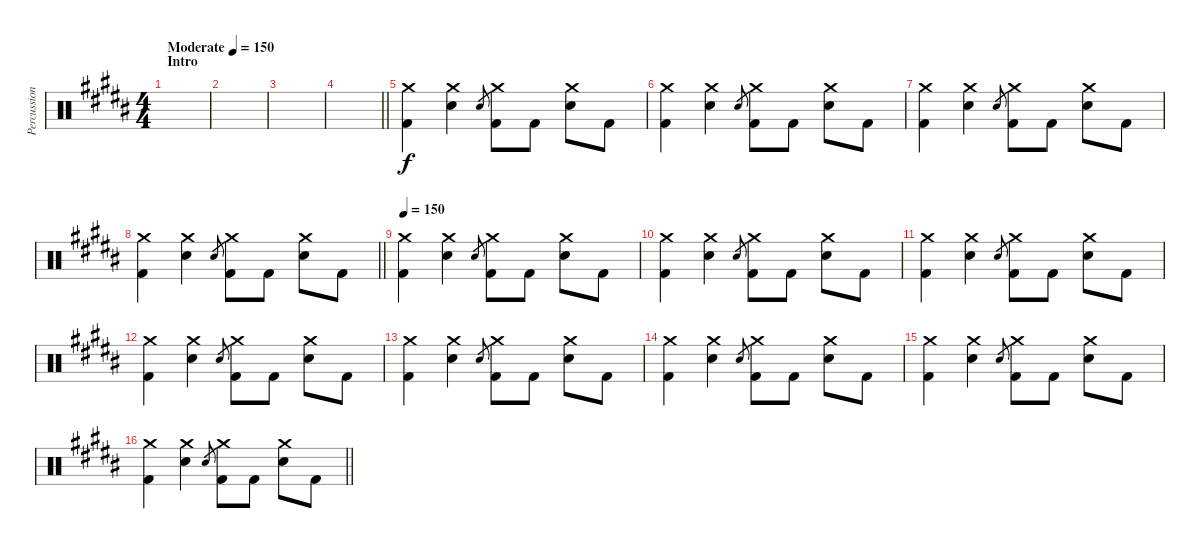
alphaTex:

\track ("Percussion" "Percussion") {instrument percussion}
\staff {score}
\articulation defaults
\ts (4 4)
\section ("" "Intro")
\tempo (150 "Moderate")
\clef neutral
\ks b
|
|
|
\barLineRight lightlight
|
("Crash medium (hit)" "Kick (hit) 2").4 ("Crash medium (hit)" "Electric Snare (hit)").4 "Electric Snare (hit)".8{gr} ("Crash medium (hit)" "Kick (hit) 2").8 "Kick (hit) 2".8 ("Crash medium (hit)" "Electric Snare (hit)").8 "Kick (hit) 2".8 |
("Crash medium (hit)" "Kick (hit) 2").4 ("Crash medium (hit)" "Electric Snare (hit)").4 "Electric Snare (hit)".8{gr} ("Crash medium (hit)" "Kick (hit) 2").8 "Kick (hit) 2".8 ("Crash medium (hit)" "Electric Snare (hit)").8 "Kick (hit) 2".8 |
("Crash medium (hit)" "Kick (hit) 2").4 ("Crash medium (hit)" "Electric Snare (hit)").4 "Electric Snare (hit)".8{gr} ("Crash medium (hit)" "Kick (hit) 2").8 "Kick (hit) 2".8 ("Crash medium (hit)" "Electric Snare (hit)").8 "Kick (hit) 2".8 |
\barLineRight lightlight
("Crash medium (hit)" "Kick (hit) 2").4 ("Crash medium (hit)" "Electric Snare (hit)").4 "Electric Snare (hit)".8{gr} ("Crash medium (hit)" "Kick (hit) 2").8 "Kick (hit) 2".8 ("Crash medium (hit)" "Electric Snare (hit)").8 "Kick (hit) 2".8 |
\tempo 150
("Crash medium (hit)" "Kick (hit) 2").4 ("Crash medium (hit)" "Electric Snare (hit)").4 "Electric Snare (hit)".8{gr} ("Crash medium (hit)" "Kick (hit) 2").8 "Kick (hit) 2".8 ("Crash medium (hit)" "Electric Snare (hit)").8 "Kick (hit) 2".8 |
("Crash medium (hit)" "Kick (hit) 2").4 ("Crash medium (hit)" "Electric Snare (hit)").4 "Electric Snare (hit)".8{gr} ("Crash medium (hit)" "Kick (hit) 2").8 "Kick (hit) 2".8 ("Crash medium (hit)" "Electric Snare (hit)").8 "Kick (hit) 2".8 |
("Crash medium (hit)" "Kick (hit) 2").4 ("Crash medium (hit)" "Electric Snare (hit)").4 "Electric Snare (hit)".8{gr} ("Crash medium (hit)" "Kick (hit) 2").8 "Kick (hit) 2".8 ("Crash medium (hit)" "Electric Snare (hit)").8 "Kick (hit) 2".8 |
("Crash medium (hit)" "Kick (hit) 2").4 ("Crash medium (hit)" "Electric Snare (hit)").4 "Electric Snare (hit)".8{gr} ("Crash medium (hit)" "Kick (hit) 2").8 "Kick (hit) 2".8 ("Crash medium (hit)" "Electric Snare (hit)").8 "Kick (hit) 2".8 |
("Crash medium (hit)" "Kick (hit) 2").4 ("Crash medium (hit)" "Electric Snare (hit)").4 "Electric Snare (hit)".8{gr} ("Crash medium (hit)" "Kick (hit) 2").8 "Kick (hit) 2".8 ("Crash medium (hit)" "Electric Snare (hit)").8 "Kick (hit) 2".8 |
("Crash medium (hit)" "Kick (hit) 2").4 ("Crash medium (hit)" "Electric Snare (hit)").4 "Electric Snare (hit)".8{gr} ("Crash medium (hit)" "Kick (hit) 2").8 "Kick (hit) 2".8 ("Crash medium (hit)" "Electric Snare (hit)").8 "Kick (hit) 2".8 |
("Crash medium (hit)" "Kick (hit) 2").4 ("Crash medium (hit)" "Electric Snare (hit)").4 "Electric Snare (hit)".8{gr} ("Crash medium (hit)" "Kick (hit) 2").8 "Kick (hit) 2".8 ("Crash medium (hit)" "Electric Snare (hit)").8 "Kick (hit) 2".8 |
\barLineRight lightlight
("Crash medium (hit)" "Kick (hit) 2").4 ("Crash medium (hit)" "Electric Snare (hit)").4 "Electric Snare (hit)".8{gr} ("Crash medium (hit)" "Kick (hit) 2").8 "Kick (hit) 2".8 ("Crash medium (hit)" "Electric Snare (hit)").8 "Kick (hit) 2".8
